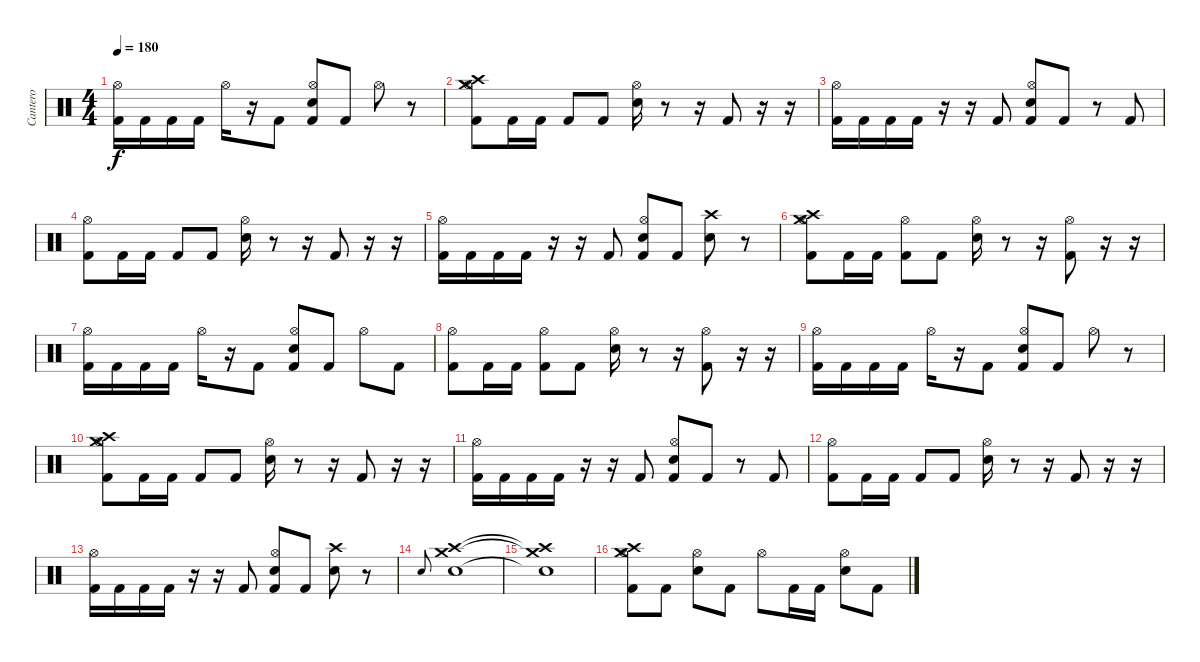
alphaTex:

\track ("Cantero" "Cantero") {instrument percussion}
\staff {score}
\articulation defaults
\ts (4 4)
\tempo 180
\clef neutral
\ks c
("Kick (hit) 2" "Hi-Hat (open)").16{dy f} "Kick (hit) 2".16 "Kick (hit) 2".16 "Kick (hit) 2".16 "Hi-Hat (open)".16 r.16 "Kick (hit) 2".8 ("Kick (hit) 2" "Electric Snare (hit)" "Hi-Hat (open)").8 "Kick (hit) 2".8 "Hi-Hat (open)".8 r.8 |
("Kick (hit) 2" "Hi-Hat (open)" "Crash medium (hit)" "Crash high (hit)").8 "Kick (hit) 2".16 "Kick (hit) 2".16 "Kick (hit) 2".8 "Kick (hit) 2".8 ("Electric Snare (hit)" "Hi-Hat (open)").16 r.8 r.16 "Kick (hit) 2".8 r.16 r.16 |
("Kick (hit) 2" "Hi-Hat (open)").16 "Kick (hit) 2".16 "Kick (hit) 2".16 "Kick (hit) 2".16 r.16 r.16 "Kick (hit) 2".8 ("Kick (hit) 2" "Electric Snare (hit)" "Hi-Hat (open)").8 "Kick (hit) 2".8 r.8 "Kick (hit) 2".8 |
("Kick (hit) 2" "Hi-Hat (open)").8 "Kick (hit) 2".16 "Kick (hit) 2".16 "Kick (hit) 2".8 "Kick (hit) 2".8 ("Electric Snare (hit)" "Hi-Hat (open)").16 r.8 r.16 "Kick (hit) 2".8 r.16 r.16 |
("Kick (hit) 2" "Hi-Hat (open)").16 "Kick (hit) 2".16 "Kick (hit) 2".16 "Kick (hit) 2".16 r.16 r.16 "Kick (hit) 2".8 ("Kick (hit) 2" "Electric Snare (hit)" "Hi-Hat (open)").8 "Kick (hit) 2".8 ("Crash high (hit)" "Electric Snare (hit)").8 r.8 |
("Kick (hit) 2" "Hi-Hat (open)" "Crash medium (hit)" "Crash high (hit)").8 "Kick (hit) 2".16 "Kick (hit) 2".16 ("Kick (hit) 2" "Hi-Hat (open)").8 "Kick (hit) 2".8 ("Electric Snare (hit)" "Hi-Hat (open)").16 r.8 r.16 ("Kick (hit) 2" "Hi-Hat (open)").8 r.16 r.16 |
("Kick (hit) 2" "Hi-Hat (open)").16 "Kick (hit) 2".16 "Kick (hit) 2".16 "Kick (hit) 2".16 "Hi-Hat (open)".16 r.16 "Kick (hit) 2".8 ("Kick (hit) 2" "Electric Snare (hit)" "Hi-Hat (open)").8 "Kick (hit) 2".8 "Hi-Hat (open)".8 "Kick (hit) 2".8 |
("Kick (hit) 2" "Hi-Hat (open)").8 "Kick (hit) 2".16 "Kick (hit) 2".16 ("Kick (hit) 2" "Hi-Hat (open)").8 "Kick (hit) 2".8 ("Electric Snare (hit)" "Hi-Hat (open)").16 r.8 r.16 ("Kick (hit) 2" "Hi-Hat (open)").8 r.16 r.16 |
("Kick (hit) 2" "Hi-Hat (open)").16 "Kick (hit) 2".16 "Kick (hit) 2".16 "Kick (hit) 2".16 "Hi-Hat (open)".16 r.16 "Kick (hit) 2".8 ("Kick (hit) 2" "Electric Snare (hit)" "Hi-Hat (open)").8 "Kick (hit) 2".8 "Hi-Hat (open)".8 r.8 |
("Kick (hit) 2" "Hi-Hat (open)" "Crash medium (hit)" "Crash high (hit)").8 "Kick (hit) 2".16 "Kick (hit) 2".16 "Kick (hit) 2".8 "Kick (hit) 2".8 ("Electric Snare (hit)" "Hi-Hat (open)").16 r.8 r.16 "Kick (hit) 2".8 r.16 r.16 |
("Kick (hit) 2" "Hi-Hat (open)").16 "Kick (hit) 2".16 "Kick (hit) 2".16 "Kick (hit) 2".16 r.16 r.16 "Kick (hit) 2".8 ("Kick (hit) 2" "Electric Snare (hit)" "Hi-Hat (open)").8 "Kick (hit) 2".8 r.8 "Kick (hit) 2".8 |
("Kick (hit) 2" "Hi-Hat (open)").8 "Kick (hit) 2".16 "Kick (hit) 2".16 "Kick (hit) 2".8 "Kick (hit) 2".8 ("Electric Snare (hit)" "Hi-Hat (open)").16 r.8 r.16 "Kick (hit) 2".8 r.16 r.16 |
("Kick (hit) 2" "Hi-Hat (open)").16 "Kick (hit) 2".16 "Kick (hit) 2".16 "Kick (hit) 2".16 r.16 r.16 "Kick (hit) 2".8 ("Kick (hit) 2" "Electric Snare (hit)" "Hi-Hat (open)").8 "Kick (hit) 2".8 ("Crash high (hit)" "Electric Snare (hit)").8 r.8 |
"Electric Snare (hit)".8{gr onbeat} ("Electric Snare (hit)" "Crash high (hit)" "Crash medium (hit)").1 |
("Electric Snare (hit)"{t} "Crash high (hit)"{t} "Crash medium (hit)"{t}).1 |
("Kick (hit) 2" "Hi-Hat (open)" "Crash high (hit)" "Crash medium (hit)").8 "Kick (hit) 2".8 ("Electric Snare (hit)" "Hi-Hat (open)").8 "Kick (hit) 2".8 "Hi-Hat (open)".8 "Kick (hit) 2".16 "Kick (hit) 2".16 ("Electric Snare (hit)" "Hi-Hat (open)").8 "Kick (hit) 2".8
